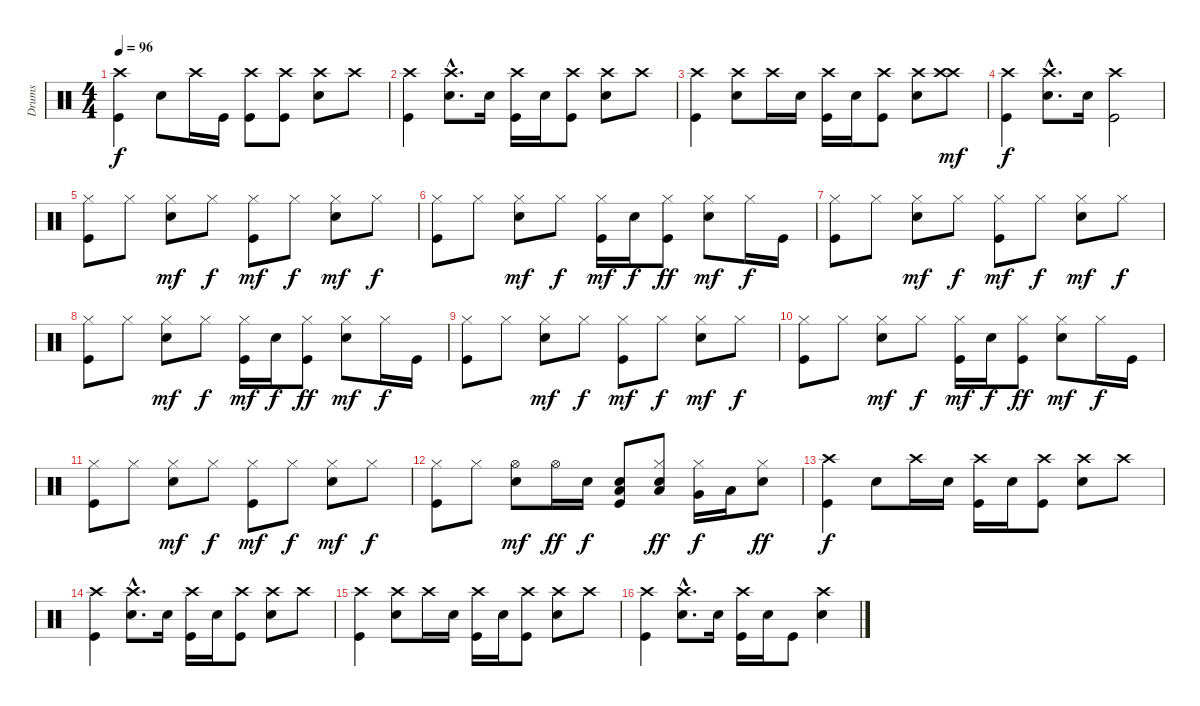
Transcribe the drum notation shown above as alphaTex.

\track ("Drums" "Drums") {instrument percussion}
\staff {score}
\articulation defaults
\ts (4 4)
\tempo 96
\clef neutral
\ks c
("Kick (hit)" "Crash high (hit)").4{dy f} "Electric Snare (hit)".8 "Crash high (hit)".16 "Kick (hit)".16 ("Kick (hit)" "Crash high (hit)").8 ("Kick (hit)" "Crash high (hit)").8 ("Electric Snare (hit)" "Crash high (hit)").8 "Crash high (hit)".8 |
("Kick (hit)" "Crash high (hit)").4 ("Electric Snare (hit)"{hac} "Crash high (hit)"{hac}).8{d} "Electric Snare (hit)".16 ("Kick (hit)" "Crash high (hit)").16 "Electric Snare (hit)".16 ("Kick (hit)" "Crash high (hit)").8 ("Electric Snare (hit)" "Crash high (hit)").8 "Crash high (hit)".8 |
("Kick (hit)" "Crash high (hit)").4 ("Electric Snare (hit)" "Crash high (hit)").8 "Crash high (hit)".16 "Electric Snare (hit)".16 ("Kick (hit)" "Crash high (hit)").16 "Electric Snare (hit)".16 ("Kick (hit)" "Crash high (hit)").8 ("Electric Snare (hit)" "Crash high (hit)").8 ("Crash high (hit)" "Crash high (hit)").8{dy mf} |
("Kick (hit)" "Crash high (hit)").4{dy f} ("Electric Snare (hit)"{hac} "Crash high (hit)"{hac}).8{d} "Electric Snare (hit)".16 ("Kick (hit)" "Crash high (hit)").2 |
("Kick (hit)" "Hi-Hat (closed)").8 "Hi-Hat (closed)".8 ("Hi-Hat (closed)" "Electric Snare (hit)").8{dy mf} "Hi-Hat (closed)".8{dy f} ("Kick (hit)" "Hi-Hat (closed)").8{dy mf} "Hi-Hat (closed)".8{dy f} ("Hi-Hat (closed)" "Electric Snare (hit)").8{dy mf} "Hi-Hat (closed)".8{dy f} |
("Kick (hit)" "Hi-Hat (closed)").8 "Hi-Hat (closed)".8 ("Hi-Hat (closed)" "Electric Snare (hit)").8{dy mf} "Hi-Hat (closed)".8{dy f} ("Kick (hit)" "Hi-Hat (closed)").16{dy mf} "Electric Snare (hit)".16{dy f} ("Kick (hit)" "Hi-Hat (closed)").8{dy ff} ("Hi-Hat (closed)" "Electric Snare (hit)").8{dy mf} "Hi-Hat (closed)".16{dy f} "Kick (hit)".16 |
("Kick (hit)" "Hi-Hat (closed)").8 "Hi-Hat (closed)".8 ("Hi-Hat (closed)" "Electric Snare (hit)").8{dy mf} "Hi-Hat (closed)".8{dy f} ("Kick (hit)" "Hi-Hat (closed)").8{dy mf} "Hi-Hat (closed)".8{dy f} ("Hi-Hat (closed)" "Electric Snare (hit)").8{dy mf} "Hi-Hat (closed)".8{dy f} |
("Kick (hit)" "Hi-Hat (closed)").8 "Hi-Hat (closed)".8 ("Hi-Hat (closed)" "Electric Snare (hit)").8{dy mf} "Hi-Hat (closed)".8{dy f} ("Kick (hit)" "Hi-Hat (closed)").16{dy mf} "Electric Snare (hit)".16{dy f} ("Kick (hit)" "Hi-Hat (closed)").8{dy ff} ("Hi-Hat (closed)" "Electric Snare (hit)").8{dy mf} "Hi-Hat (closed)".16{dy f} "Kick (hit)".16 |
("Kick (hit)" "Hi-Hat (closed)").8 "Hi-Hat (closed)".8 ("Hi-Hat (closed)" "Electric Snare (hit)").8{dy mf} "Hi-Hat (closed)".8{dy f} ("Kick (hit)" "Hi-Hat (closed)").8{dy mf} "Hi-Hat (closed)".8{dy f} ("Hi-Hat (closed)" "Electric Snare (hit)").8{dy mf} "Hi-Hat (closed)".8{dy f} |
("Kick (hit)" "Hi-Hat (closed)").8 "Hi-Hat (closed)".8 ("Hi-Hat (closed)" "Electric Snare (hit)").8{dy mf} "Hi-Hat (closed)".8{dy f} ("Kick (hit)" "Hi-Hat (closed)").16{dy mf} "Electric Snare (hit)".16{dy f} ("Kick (hit)" "Hi-Hat (closed)").8{dy ff} ("Hi-Hat (closed)" "Electric Snare (hit)").8{dy mf} "Hi-Hat (closed)".16{dy f} "Kick (hit)".16 |
("Kick (hit)" "Hi-Hat (closed)").8 "Hi-Hat (closed)".8 ("Hi-Hat (closed)" "Electric Snare (hit)").8{dy mf} "Hi-Hat (closed)".8{dy f} ("Kick (hit)" "Hi-Hat (closed)").8{dy mf} "Hi-Hat (closed)".8{dy f} ("Hi-Hat (closed)" "Electric Snare (hit)").8{dy mf} "Hi-Hat (closed)".8{dy f} |
("Kick (hit)" "Hi-Hat (closed)").8 "Hi-Hat (closed)".8 ("Hi-Hat (open)" "Electric Snare (hit)").8{dy mf} "Hi-Hat (open)".16{dy ff} "Electric Snare (hit)".16{dy f} ("Kick (hit)" "Electric Snare (hit)" "Low Tom (hit)").8 ("Hi-Hat (closed)" "Electric Snare (hit)" "Low Floor Tom (hit)").8{dy ff} ("Hi-Hat (closed)" "Very Low Tom (hit)").16{dy f} "Low Floor Tom (hit)".16 ("Hi-Hat (closed)" "Electric Snare (hit)").8{dy ff} |
("Kick (hit)" "Crash high (hit)").4{dy f} "Electric Snare (hit)".8 "Crash high (hit)".16 "Electric Snare (hit)".16 ("Kick (hit)" "Crash high (hit)").16 "Electric Snare (hit)".16 ("Kick (hit)" "Crash high (hit)").8 ("Electric Snare (hit)" "Crash high (hit)").8 "Crash high (hit)".8 |
("Kick (hit)" "Crash high (hit)").4 ("Electric Snare (hit)"{hac} "Crash high (hit)"{hac}).8{d} "Electric Snare (hit)".16 ("Kick (hit)" "Crash high (hit)").16 "Electric Snare (hit)".16 ("Kick (hit)" "Crash high (hit)").8 ("Electric Snare (hit)" "Crash high (hit)").8 "Crash high (hit)".8 |
("Kick (hit)" "Crash high (hit)").4 ("Electric Snare (hit)" "Crash high (hit)").8 "Crash high (hit)".16 "Electric Snare (hit)".16 ("Kick (hit)" "Crash high (hit)").16 "Electric Snare (hit)".16 ("Kick (hit)" "Crash high (hit)").8 ("Electric Snare (hit)" "Crash high (hit)").8 "Crash high (hit)".8 |
("Kick (hit)" "Crash high (hit)").4 ("Electric Snare (hit)"{hac} "Crash high (hit)"{hac}).8{d} "Electric Snare (hit)".16 ("Kick (hit)" "Crash high (hit)").16 "Electric Snare (hit)".16 "Kick (hit)".8 ("Electric Snare (hit)" "Crash high (hit)").4
